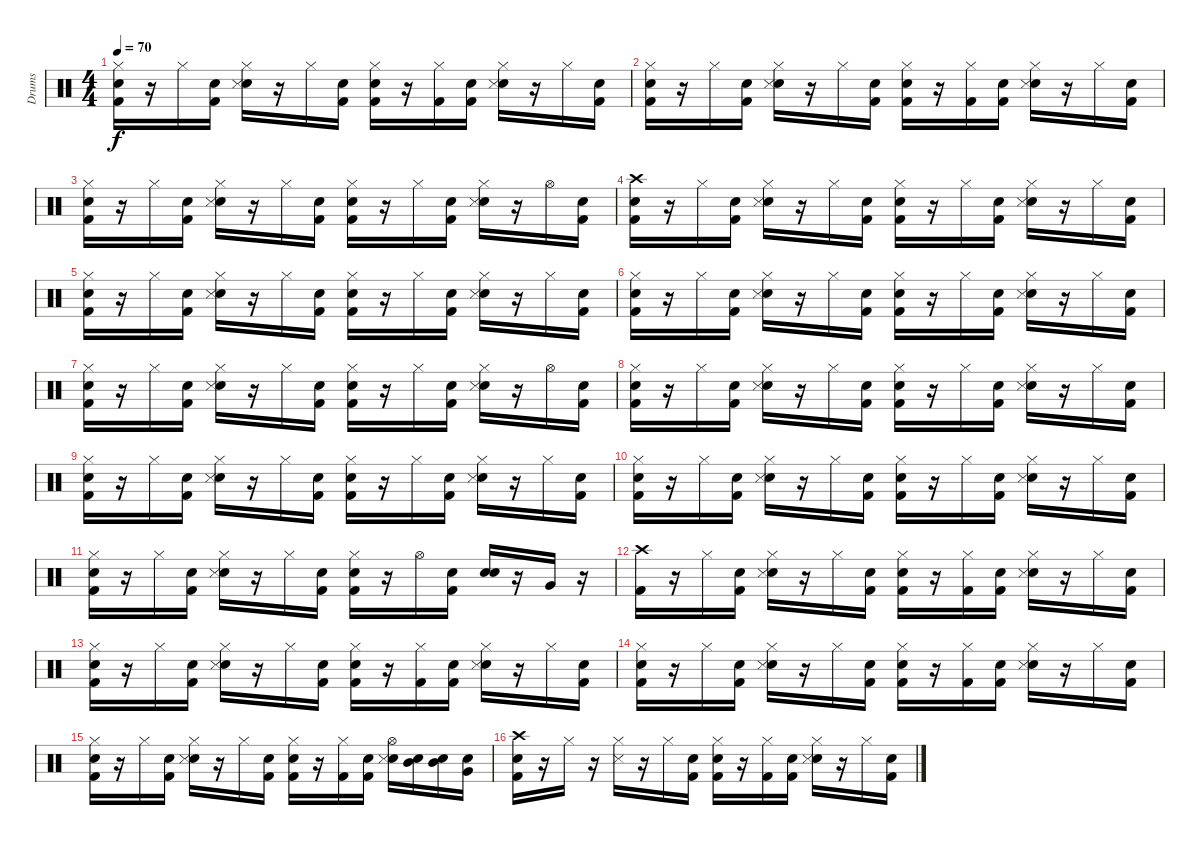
\track ("Drums" "Drums") {instrument percussion}
\staff {score}
\articulation defaults
\ts (4 4)
\tempo 70
\clef neutral
\ks c
("Snare (hit)" "Kick (hit) 2" "Hi-Hat (closed)").16{dy f} r.16 "Hi-Hat (closed)".16 ("Snare (hit)" "Kick (hit) 2").16 ("Snare (hit)" "Snare (side stick) 3" "Hi-Hat (closed)").16 r.16 "Hi-Hat (closed)".16 ("Snare (hit)" "Kick (hit) 2").16 ("Snare (hit)" "Kick (hit) 2" "Hi-Hat (closed)").16 r.16 ("Kick (hit) 2" "Hi-Hat (closed)").16 ("Snare (hit)" "Kick (hit) 2").16 ("Snare (hit)" "Snare (side stick) 3" "Hi-Hat (closed)").16 r.16 "Hi-Hat (closed)".16 ("Snare (hit)" "Kick (hit) 2").16 |
("Snare (hit)" "Kick (hit) 2" "Hi-Hat (closed)").16 r.16 "Hi-Hat (closed)".16 ("Snare (hit)" "Kick (hit) 2").16 ("Snare (hit)" "Snare (side stick) 3" "Hi-Hat (closed)").16 r.16 "Hi-Hat (closed)".16 ("Snare (hit)" "Kick (hit) 2").16 ("Snare (hit)" "Kick (hit) 2" "Hi-Hat (closed)").16 r.16 ("Kick (hit) 2" "Hi-Hat (closed)").16 ("Snare (hit)" "Kick (hit) 2").16 ("Snare (hit)" "Snare (side stick) 3" "Hi-Hat (closed)").16 r.16 "Hi-Hat (closed)".16 ("Snare (hit)" "Kick (hit) 2").16 |
("Snare (hit)" "Kick (hit) 2" "Hi-Hat (closed)").16 r.16 "Hi-Hat (closed)".16 ("Snare (hit)" "Kick (hit) 2").16 ("Snare (hit)" "Snare (side stick) 3" "Hi-Hat (closed)").16 r.16 "Hi-Hat (closed)".16 ("Snare (hit)" "Kick (hit) 2").16 ("Snare (hit)" "Kick (hit) 2" "Hi-Hat (closed)").16 r.16 "Hi-Hat (closed)".16 ("Snare (hit)" "Kick (hit) 2").16 ("Snare (hit)" "Snare (side stick) 3" "Hi-Hat (closed)").16 r.16 "Hi-Hat (open)".16 ("Snare (hit)" "Kick (hit) 2").16 |
("Snare (hit)" "Kick (hit) 2" "Crash high (hit)").16 r.16 "Hi-Hat (closed)".16 ("Snare (hit)" "Kick (hit) 2").16 ("Snare (hit)" "Snare (side stick) 3" "Hi-Hat (closed)").16 r.16 "Hi-Hat (closed)".16 ("Snare (hit)" "Kick (hit) 2").16 ("Snare (hit)" "Kick (hit) 2" "Hi-Hat (closed)").16 r.16 "Hi-Hat (closed)".16 ("Snare (hit)" "Kick (hit) 2").16 ("Snare (hit)" "Snare (side stick) 3" "Hi-Hat (closed)").16 r.16 "Hi-Hat (closed)".16 ("Snare (hit)" "Kick (hit) 2").16 |
("Snare (hit)" "Kick (hit) 2" "Hi-Hat (closed)").16 r.16 "Hi-Hat (closed)".16 ("Snare (hit)" "Kick (hit) 2").16 ("Snare (hit)" "Snare (side stick) 3" "Hi-Hat (closed)").16 r.16 "Hi-Hat (closed)".16 ("Snare (hit)" "Kick (hit) 2").16 ("Snare (hit)" "Kick (hit) 2" "Hi-Hat (closed)").16 r.16 "Hi-Hat (closed)".16 ("Snare (hit)" "Kick (hit) 2").16 ("Snare (hit)" "Snare (side stick) 3" "Hi-Hat (closed)").16 r.16 "Hi-Hat (closed)".16 ("Snare (hit)" "Kick (hit) 2").16 |
("Snare (hit)" "Kick (hit) 2" "Hi-Hat (closed)").16 r.16 "Hi-Hat (closed)".16 ("Snare (hit)" "Kick (hit) 2").16 ("Snare (hit)" "Snare (side stick) 3" "Hi-Hat (closed)").16 r.16 "Hi-Hat (closed)".16 ("Snare (hit)" "Kick (hit) 2").16 ("Snare (hit)" "Kick (hit) 2" "Hi-Hat (closed)").16 r.16 "Hi-Hat (closed)".16 ("Snare (hit)" "Kick (hit) 2").16 ("Snare (hit)" "Snare (side stick) 3" "Hi-Hat (closed)").16 r.16 "Hi-Hat (closed)".16 ("Snare (hit)" "Kick (hit) 2").16 |
("Snare (hit)" "Kick (hit) 2" "Hi-Hat (closed)").16 r.16 "Hi-Hat (closed)".16 ("Snare (hit)" "Kick (hit) 2").16 ("Snare (hit)" "Snare (side stick) 3" "Hi-Hat (closed)").16 r.16 "Hi-Hat (closed)".16 ("Snare (hit)" "Kick (hit) 2").16 ("Snare (hit)" "Kick (hit) 2" "Hi-Hat (closed)").16 r.16 "Hi-Hat (closed)".16 ("Snare (hit)" "Kick (hit) 2").16 ("Snare (hit)" "Snare (side stick) 3" "Hi-Hat (closed)").16 r.16 "Hi-Hat (open)".16 ("Snare (hit)" "Kick (hit) 2").16 |
("Snare (hit)" "Kick (hit) 2" "Hi-Hat (closed)").16 r.16 "Hi-Hat (closed)".16 ("Snare (hit)" "Kick (hit) 2").16 ("Snare (hit)" "Snare (side stick) 3" "Hi-Hat (closed)").16 r.16 "Hi-Hat (closed)".16 ("Snare (hit)" "Kick (hit) 2").16 ("Snare (hit)" "Kick (hit) 2" "Hi-Hat (closed)").16 r.16 "Hi-Hat (closed)".16 ("Snare (hit)" "Kick (hit) 2").16 ("Snare (hit)" "Snare (side stick) 3" "Hi-Hat (closed)").16 r.16 "Hi-Hat (closed)".16 ("Snare (hit)" "Kick (hit) 2").16 |
("Snare (hit)" "Kick (hit) 2" "Hi-Hat (closed)").16 r.16 "Hi-Hat (closed)".16 ("Snare (hit)" "Kick (hit) 2").16 ("Snare (hit)" "Snare (side stick) 3" "Hi-Hat (closed)").16 r.16 "Hi-Hat (closed)".16 ("Snare (hit)" "Kick (hit) 2").16 ("Snare (hit)" "Kick (hit) 2" "Hi-Hat (closed)").16 r.16 "Hi-Hat (closed)".16 ("Snare (hit)" "Kick (hit) 2").16 ("Snare (hit)" "Snare (side stick) 3" "Hi-Hat (closed)").16 r.16 "Hi-Hat (closed)".16 ("Snare (hit)" "Kick (hit) 2").16 |
("Snare (hit)" "Kick (hit) 2" "Hi-Hat (closed)").16 r.16 "Hi-Hat (closed)".16 ("Snare (hit)" "Kick (hit) 2").16 ("Snare (hit)" "Snare (side stick) 3" "Hi-Hat (closed)").16 r.16 "Hi-Hat (closed)".16 ("Snare (hit)" "Kick (hit) 2").16 ("Snare (hit)" "Kick (hit) 2" "Hi-Hat (closed)").16 r.16 "Hi-Hat (closed)".16 ("Snare (hit)" "Kick (hit) 2").16 ("Snare (hit)" "Snare (side stick) 3" "Hi-Hat (closed)").16 r.16 "Hi-Hat (closed)".16 ("Snare (hit)" "Kick (hit) 2").16 |
("Snare (hit)" "Kick (hit) 2" "Hi-Hat (closed)").16 r.16 "Hi-Hat (closed)".16 ("Snare (hit)" "Kick (hit) 2").16 ("Snare (hit)" "Snare (side stick) 3" "Hi-Hat (closed)").16 r.16 "Hi-Hat (closed)".16 ("Snare (hit)" "Kick (hit) 2").16 ("Snare (hit)" "Kick (hit) 2" "Hi-Hat (closed)").16 r.16 "Hi-Hat (open)".16 ("Snare (hit)" "Kick (hit) 2").16 ("Snare (hit)" "Snare (hit) 2").16 r.16 "Very Low Tom (hit)".16 r.16 |
("Kick (hit) 2" "Crash high (hit)").16 r.16 "Hi-Hat (closed)".16 ("Snare (hit)" "Kick (hit) 2").16 ("Snare (hit)" "Snare (side stick) 3" "Hi-Hat (closed)").16 r.16 "Hi-Hat (closed)".16 ("Snare (hit)" "Kick (hit) 2").16 ("Snare (hit)" "Kick (hit) 2" "Hi-Hat (closed)").16 r.16 ("Kick (hit) 2" "Hi-Hat (closed)").16 ("Snare (hit)" "Kick (hit) 2").16 ("Snare (hit)" "Snare (side stick) 3" "Hi-Hat (closed)").16 r.16 "Hi-Hat (closed)".16 ("Snare (hit)" "Kick (hit) 2").16 |
("Snare (hit)" "Kick (hit) 2" "Hi-Hat (closed)").16 r.16 "Hi-Hat (closed)".16 ("Snare (hit)" "Kick (hit) 2").16 ("Snare (hit)" "Snare (side stick) 3" "Hi-Hat (closed)").16 r.16 "Hi-Hat (closed)".16 ("Snare (hit)" "Kick (hit) 2").16 ("Snare (hit)" "Kick (hit) 2" "Hi-Hat (closed)").16 r.16 ("Kick (hit) 2" "Hi-Hat (closed)").16 ("Snare (hit)" "Kick (hit) 2").16 ("Snare (hit)" "Snare (side stick) 3" "Hi-Hat (closed)").16 r.16 "Hi-Hat (closed)".16 ("Snare (hit)" "Kick (hit) 2").16 |
("Snare (hit)" "Kick (hit) 2" "Hi-Hat (closed)").16 r.16 "Hi-Hat (closed)".16 ("Snare (hit)" "Kick (hit) 2").16 ("Snare (hit)" "Snare (side stick) 3" "Hi-Hat (closed)").16 r.16 "Hi-Hat (closed)".16 ("Snare (hit)" "Kick (hit) 2").16 ("Snare (hit)" "Kick (hit) 2" "Hi-Hat (closed)").16 r.16 ("Kick (hit) 2" "Hi-Hat (closed)").16 ("Snare (hit)" "Kick (hit) 2").16 ("Snare (hit)" "Snare (side stick) 3" "Hi-Hat (closed)").16 r.16 "Hi-Hat (closed)".16 ("Snare (hit)" "Kick (hit) 2").16 |
("Snare (hit)" "Kick (hit) 2" "Hi-Hat (closed)").16 r.16 "Hi-Hat (closed)".16 ("Snare (hit)" "Kick (hit) 2").16 ("Snare (hit)" "Snare (side stick) 3" "Hi-Hat (closed)").16 r.16 "Hi-Hat (closed)".16 ("Snare (hit)" "Kick (hit) 2").16 ("Snare (hit)" "Kick (hit) 2" "Hi-Hat (closed)").16 r.16 ("Kick (hit) 2" "Hi-Hat (closed)").16 ("Snare (hit)" "Kick (hit) 2").16 ("Snare (hit)" "Snare (side stick) 3" "Hi-Hat (open)").16 ("Snare (hit)" "Mid Tom (hit)").16 ("Snare (hit)" "Mid Tom (hit)").16 ("Snare (hit)" "Very Low Tom (hit)").16 |
("Snare (hit)" "Kick (hit) 2" "Crash high (hit)").16 r.16 "Hi-Hat (closed)".16 r.16 ("Snare (side stick) 3" "Hi-Hat (closed)").16 r.16 "Hi-Hat (closed)".16 ("Snare (hit)" "Kick (hit) 2").16 ("Snare (hit)" "Kick (hit) 2" "Hi-Hat (closed)").16 r.16 ("Kick (hit) 2" "Hi-Hat (closed)").16 ("Snare (hit)" "Kick (hit) 2").16 ("Snare (hit)" "Snare (side stick) 3" "Hi-Hat (closed)").16 r.16 "Hi-Hat (closed)".16 ("Snare (hit)" "Kick (hit) 2").16
